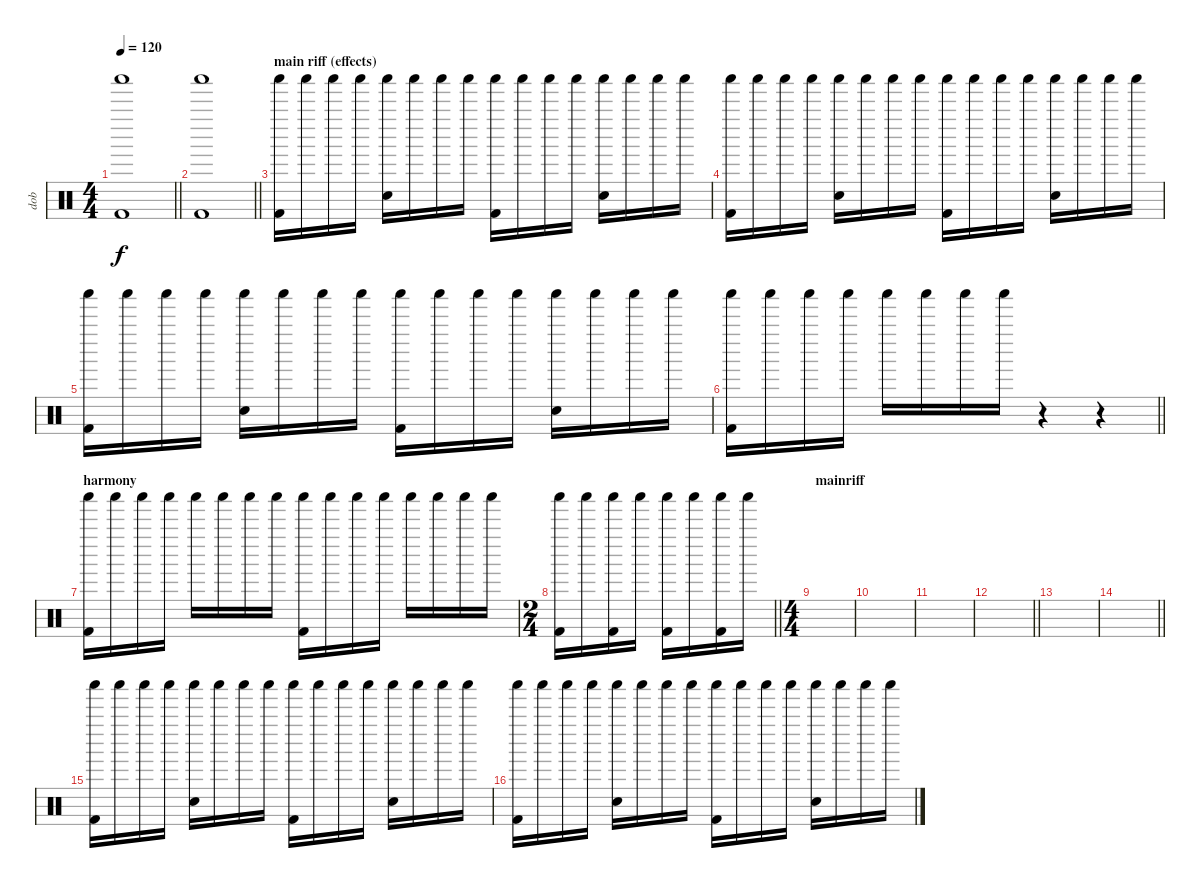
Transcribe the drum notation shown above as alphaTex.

\track ("dob" "dob") {instrument percussion}
\staff {score}
\articulation defaults
\ts (4 4)
\tempo 120
\clef neutral
\barLineRight lightlight
\ks c
("Kick (hit) 2" "Shaker (hit)").1{dy f} |
\barLineRight lightlight
("Kick (hit) 2" "Shaker (hit)").1 |
\section ("" "main riff (effects)")
("Kick (hit) 2" "Shaker (hit)").16 "Shaker (hit)".16 "Shaker (hit)".16 "Shaker (hit)".16 ("Electric Snare (hit)" "Shaker (hit)").16 "Shaker (hit)".16 "Shaker (hit)".16 "Shaker (hit)".16 ("Kick (hit) 2" "Shaker (hit)").16 "Shaker (hit)".16 "Shaker (hit)".16 "Shaker (hit)".16 ("Electric Snare (hit)" "Shaker (hit)").16 "Shaker (hit)".16 "Shaker (hit)".16 "Shaker (hit)".16 |
("Kick (hit) 2" "Shaker (hit)").16 "Shaker (hit)".16 "Shaker (hit)".16 "Shaker (hit)".16 ("Electric Snare (hit)" "Shaker (hit)").16 "Shaker (hit)".16 "Shaker (hit)".16 "Shaker (hit)".16 ("Kick (hit) 2" "Shaker (hit)").16 "Shaker (hit)".16 "Shaker (hit)".16 "Shaker (hit)".16 ("Electric Snare (hit)" "Shaker (hit)").16 "Shaker (hit)".16 "Shaker (hit)".16 "Shaker (hit)".16 |
("Kick (hit) 2" "Shaker (hit)").16 "Shaker (hit)".16 "Shaker (hit)".16 "Shaker (hit)".16 ("Electric Snare (hit)" "Shaker (hit)").16 "Shaker (hit)".16 "Shaker (hit)".16 "Shaker (hit)".16 ("Kick (hit) 2" "Shaker (hit)").16 "Shaker (hit)".16 "Shaker (hit)".16 "Shaker (hit)".16 ("Electric Snare (hit)" "Shaker (hit)").16 "Shaker (hit)".16 "Shaker (hit)".16 "Shaker (hit)".16 |
\barLineRight lightlight
("Kick (hit) 2" "Shaker (hit)").16 "Shaker (hit)".16 "Shaker (hit)".16 "Shaker (hit)".16 "Shaker (hit)".16 "Shaker (hit)".16 "Shaker (hit)".16 "Shaker (hit)".16 r.4 r.4 |
\section ("" "harmony")
("Kick (hit) 2" "Shaker (hit)").16 "Shaker (hit)".16 "Shaker (hit)".16 "Shaker (hit)".16 "Shaker (hit)".16 "Shaker (hit)".16 "Shaker (hit)".16 "Shaker (hit)".16 ("Kick (hit) 2" "Shaker (hit)").16 "Shaker (hit)".16 "Shaker (hit)".16 "Shaker (hit)".16 "Shaker (hit)".16 "Shaker (hit)".16 "Shaker (hit)".16 "Shaker (hit)".16 |
\ts (2 4)
\barLineRight lightlight
("Kick (hit) 2" "Shaker (hit)").16 "Shaker (hit)".16 ("Kick (hit) 2" "Shaker (hit)").16 "Shaker (hit)".16 ("Kick (hit) 2" "Shaker (hit)").16 "Shaker (hit)".16 ("Kick (hit) 2" "Shaker (hit)").16 "Shaker (hit)".16 |
\ts (4 4)
\section ("" "mainriff")
|
|
|
\barLineRight lightlight
|
|
\barLineRight lightlight
|
("Kick (hit) 2" "Shaker (hit)").16 "Shaker (hit)".16 "Shaker (hit)".16 "Shaker (hit)".16 ("Electric Snare (hit)" "Shaker (hit)").16 "Shaker (hit)".16 "Shaker (hit)".16 "Shaker (hit)".16 ("Kick (hit) 2" "Shaker (hit)").16 "Shaker (hit)".16 "Shaker (hit)".16 "Shaker (hit)".16 ("Electric Snare (hit)" "Shaker (hit)").16 "Shaker (hit)".16 "Shaker (hit)".16 "Shaker (hit)".16 |
("Kick (hit) 2" "Shaker (hit)").16 "Shaker (hit)".16 "Shaker (hit)".16 "Shaker (hit)".16 ("Electric Snare (hit)" "Shaker (hit)").16 "Shaker (hit)".16 "Shaker (hit)".16 "Shaker (hit)".16 ("Kick (hit) 2" "Shaker (hit)").16 "Shaker (hit)".16 "Shaker (hit)".16 "Shaker (hit)".16 ("Electric Snare (hit)" "Shaker (hit)").16 "Shaker (hit)".16 "Shaker (hit)".16 "Shaker (hit)".16
